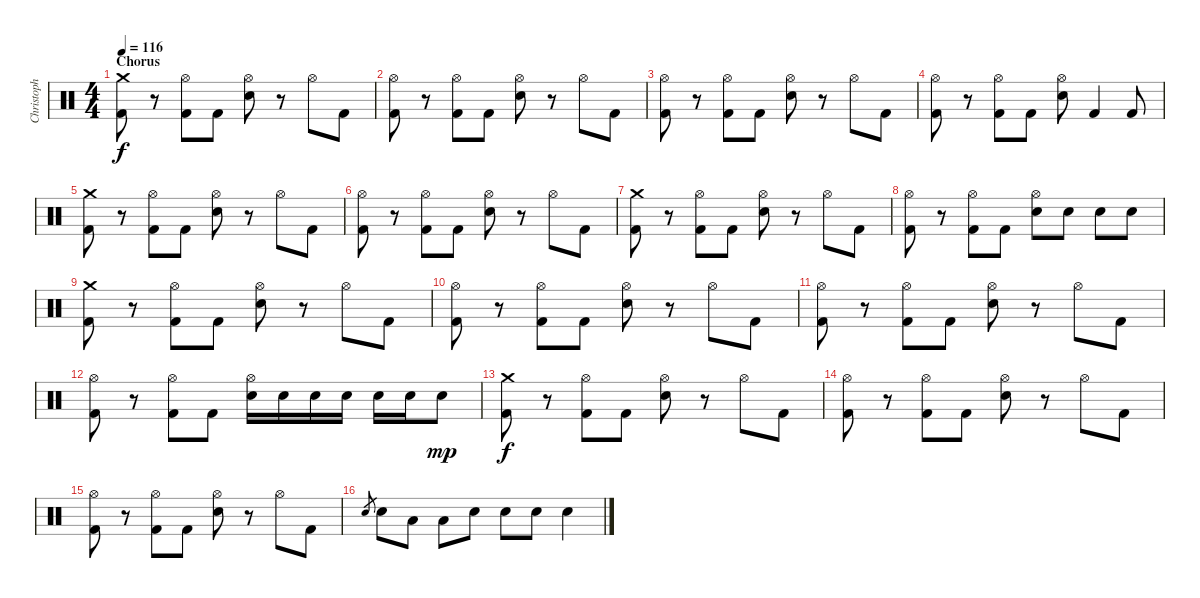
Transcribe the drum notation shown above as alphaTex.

\track ("Christoph Schneider" "Christoph ") {instrument percussion}
\staff {score}
\articulation defaults
\ts (4 4)
\section ("" "Chorus")
\tempo 116
\clef neutral
\ks c
("Crash medium (hit)" "Kick (hit) 2").8{dy f} r.8 ("Hi-Hat (open)" "Kick (hit) 2").8 "Kick (hit) 2".8 ("Hi-Hat (open)" "Snare (hit) 2").8 r.8 "Hi-Hat (open)".8 "Kick (hit) 2".8 |
("Hi-Hat (open)" "Kick (hit) 2").8 r.8 ("Hi-Hat (open)" "Kick (hit) 2").8 "Kick (hit) 2".8 ("Hi-Hat (open)" "Snare (hit) 2").8 r.8 "Hi-Hat (open)".8 "Kick (hit) 2".8 |
("Hi-Hat (open)" "Kick (hit) 2").8 r.8 ("Hi-Hat (open)" "Kick (hit) 2").8 "Kick (hit) 2".8 ("Hi-Hat (open)" "Snare (hit) 2").8 r.8 "Hi-Hat (open)".8 "Kick (hit) 2".8 |
("Hi-Hat (open)" "Kick (hit) 2").8 r.8 ("Hi-Hat (open)" "Kick (hit) 2").8 "Kick (hit) 2".8 ("Hi-Hat (open)" "Snare (hit) 2").8 "Kick (hit) 2".4 "Kick (hit) 2".8 |
("Crash medium (hit)" "Kick (hit) 2").8 r.8 ("Hi-Hat (open)" "Kick (hit) 2").8 "Kick (hit) 2".8 ("Hi-Hat (open)" "Snare (hit) 2").8 r.8 "Hi-Hat (open)".8 "Kick (hit) 2".8 |
("Hi-Hat (open)" "Kick (hit) 2").8 r.8 ("Hi-Hat (open)" "Kick (hit) 2").8 "Kick (hit) 2".8 ("Hi-Hat (open)" "Snare (hit) 2").8 r.8 "Hi-Hat (open)".8 "Kick (hit) 2".8 |
("Crash medium (hit)" "Kick (hit) 2").8 r.8 ("Hi-Hat (open)" "Kick (hit) 2").8 "Kick (hit) 2".8 ("Hi-Hat (open)" "Snare (hit) 2").8 r.8 "Hi-Hat (open)".8 "Kick (hit) 2".8 |
("Hi-Hat (open)" "Kick (hit) 2").8 r.8 ("Hi-Hat (open)" "Kick (hit) 2").8 "Kick (hit) 2".8 ("Hi-Hat (open)" "Snare (hit) 2").8 "Snare (hit) 2".8 "Snare (hit) 2".8 "Snare (hit) 2".8 |
("Crash medium (hit)" "Kick (hit) 2").8 r.8 ("Hi-Hat (open)" "Kick (hit) 2").8 "Kick (hit) 2".8 ("Hi-Hat (open)" "Snare (hit) 2").8 r.8 "Hi-Hat (open)".8 "Kick (hit) 2".8 |
("Hi-Hat (open)" "Kick (hit) 2").8 r.8 ("Hi-Hat (open)" "Kick (hit) 2").8 "Kick (hit) 2".8 ("Hi-Hat (open)" "Snare (hit) 2").8 r.8 "Hi-Hat (open)".8 "Kick (hit) 2".8 |
("Hi-Hat (open)" "Kick (hit) 2").8 r.8 ("Hi-Hat (open)" "Kick (hit) 2").8 "Kick (hit) 2".8 ("Hi-Hat (open)" "Snare (hit) 2").8 r.8 "Hi-Hat (open)".8 "Kick (hit) 2".8 |
("Hi-Hat (open)" "Kick (hit) 2").8 r.8 ("Hi-Hat (open)" "Kick (hit) 2").8 "Kick (hit) 2".8 ("Hi-Hat (open)" "Snare (hit) 2").16 "Snare (hit) 2".16 "Snare (hit) 2".16 "Snare (hit) 2".16 "Snare (hit) 2".16 "Snare (hit) 2".16 "Snare (hit) 2".8{dy mp} |
("Crash medium (hit)" "Kick (hit) 2").8{dy f} r.8 ("Hi-Hat (open)" "Kick (hit) 2").8 "Kick (hit) 2".8 ("Hi-Hat (open)" "Snare (hit) 2").8 r.8 "Hi-Hat (open)".8 "Kick (hit) 2".8 |
("Hi-Hat (open)" "Kick (hit) 2").8 r.8 ("Hi-Hat (open)" "Kick (hit) 2").8 "Kick (hit) 2".8 ("Hi-Hat (open)" "Snare (hit) 2").8 r.8 "Hi-Hat (open)".8 "Kick (hit) 2".8 |
("Hi-Hat (open)" "Kick (hit) 2").8 r.8 ("Hi-Hat (open)" "Kick (hit) 2").8 "Kick (hit) 2".8 ("Hi-Hat (open)" "Snare (hit) 2").8 r.8 "Hi-Hat (open)".8 "Kick (hit) 2".8 |
"Snare (hit) 2".8{gr} "Snare (hit) 2".8 "Low Tom (hit)".8 "Low Tom (hit)".8 "Snare (hit) 2".8 "Snare (hit) 2".8 "Snare (hit) 2".8 "Snare (hit) 2".4
